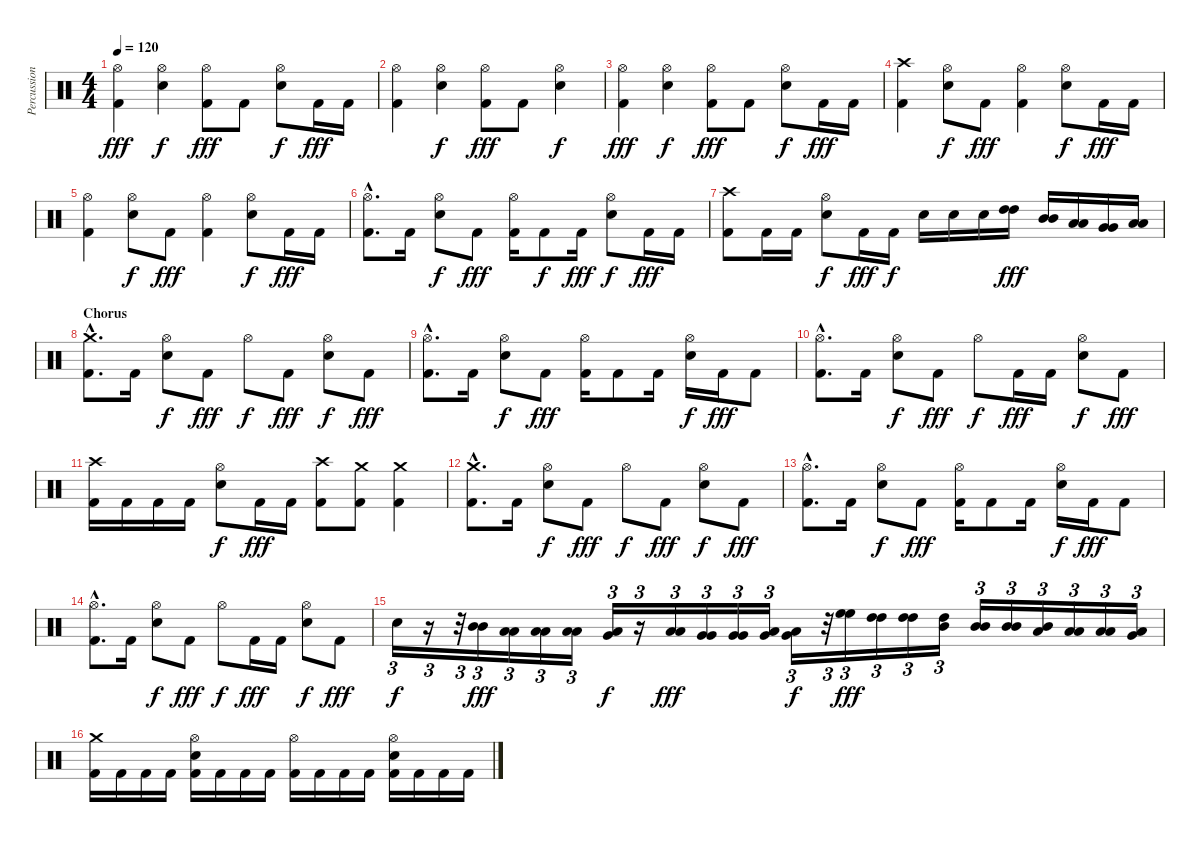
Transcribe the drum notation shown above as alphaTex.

\track ("Percussion" "Percussion") {instrument percussion}
\staff {score}
\articulation defaults
\ts (4 4)
\tempo 120
\clef neutral
\ks c
("Hi-Hat (open)" "Kick (hit) 2").4{dy fff} ("Hi-Hat (open)" "Snare (hit) 2").4{dy f} ("Hi-Hat (open)" "Kick (hit) 2").8{dy fff} "Kick (hit) 2".8 ("Hi-Hat (open)" "Snare (hit) 2").8{dy f} "Kick (hit) 2".16{dy fff} "Kick (hit) 2".16 |
("Hi-Hat (open)" "Kick (hit) 2").4 ("Hi-Hat (open)" "Snare (hit) 2").4{dy f} ("Hi-Hat (open)" "Kick (hit) 2").8{dy fff} "Kick (hit) 2".8 ("Hi-Hat (open)" "Snare (hit) 2").4{dy f} |
("Hi-Hat (open)" "Kick (hit) 2").4{dy fff} ("Hi-Hat (open)" "Snare (hit) 2").4{dy f} ("Hi-Hat (open)" "Kick (hit) 2").8{dy fff} "Kick (hit) 2".8 ("Hi-Hat (open)" "Snare (hit) 2").8{dy f} "Kick (hit) 2".16{dy fff} "Kick (hit) 2".16 |
("Crash high (hit)" "Kick (hit) 2").4 ("Hi-Hat (open)" "Snare (hit) 2").8{dy f} "Kick (hit) 2".8{dy fff} ("Hi-Hat (open)" "Kick (hit) 2").4 ("Hi-Hat (open)" "Snare (hit) 2").8{dy f} "Kick (hit) 2".16{dy fff} "Kick (hit) 2".16 |
("Hi-Hat (open)" "Kick (hit) 2").4 ("Hi-Hat (open)" "Snare (hit) 2").8{dy f} "Kick (hit) 2".8{dy fff} ("Hi-Hat (open)" "Kick (hit) 2").4 ("Hi-Hat (open)" "Snare (hit) 2").8{dy f} "Kick (hit) 2".16{dy fff} "Kick (hit) 2".16 |
("Hi-Hat (open)"{hac} "Kick (hit) 2"{hac}).8{d} "Kick (hit) 2".16 ("Hi-Hat (open)" "Snare (hit) 2").8{dy f} "Kick (hit) 2".8{dy fff} ("Hi-Hat (open)" "Kick (hit) 2").16 "Kick (hit) 2".8{dy f} "Kick (hit) 2".16{dy fff} ("Hi-Hat (open)" "Snare (hit) 2").8{dy f} "Kick (hit) 2".16{dy fff} "Kick (hit) 2".16 |
("Crash high (hit)" "Kick (hit) 2").8 "Kick (hit) 2".16 "Kick (hit) 2".16 ("Hi-Hat (open)" "Snare (hit) 2").8{dy f} "Kick (hit) 2".16{dy fff} "Kick (hit) 2".16{dy f} "Snare (hit) 2".16 "Snare (hit) 2".16 "Snare (hit) 2".16 ("High Tom (hit)" "High Tom (hit)").16{dy fff} ("Mid Tom (hit)" "Mid Tom (hit)").16 ("Low Tom (hit)" "Low Tom (hit)").16 ("Very Low Tom (hit)" "Very Low Tom (hit)").16 ("Low Floor Tom (hit)" "Low Floor Tom (hit)").16 |
\section ("" "Chorus")
("Crash medium (hit)"{hac} "Kick (hit) 2"{hac}).8{d} "Kick (hit) 2".16 ("Hi-Hat (open)" "Snare (hit) 2").8{dy f} "Kick (hit) 2".8{dy fff} "Hi-Hat (open)".8{dy f} "Kick (hit) 2".8{dy fff} ("Hi-Hat (open)" "Snare (hit) 2").8{dy f} "Kick (hit) 2".8{dy fff} |
("Hi-Hat (open)"{hac} "Kick (hit) 2"{hac}).8{d} "Kick (hit) 2".16 ("Hi-Hat (open)" "Snare (hit) 2").8{dy f} "Kick (hit) 2".8{dy fff} ("Hi-Hat (open)" "Kick (hit) 2").16 "Kick (hit) 2".8 "Kick (hit) 2".16 ("Hi-Hat (open)" "Snare (hit) 2").16{dy f} "Kick (hit) 2".16{dy fff} "Kick (hit) 2".8 |
("Hi-Hat (open)"{hac} "Kick (hit) 2"{hac}).8{d} "Kick (hit) 2".16 ("Hi-Hat (open)" "Snare (hit) 2").8{dy f} "Kick (hit) 2".8{dy fff} "Hi-Hat (open)".8{dy f} "Kick (hit) 2".16{dy fff} "Kick (hit) 2".16 ("Hi-Hat (open)" "Snare (hit) 2").8{dy f} "Kick (hit) 2".8{dy fff} |
("Crash high (hit)" "Kick (hit) 2").16 "Kick (hit) 2".16 "Kick (hit) 2".16 "Kick (hit) 2".16 ("Hi-Hat (open)" "Snare (hit) 2").8{dy f} "Kick (hit) 2".16{dy fff} "Kick (hit) 2".16 ("Crash high (hit)" "Kick (hit) 2").8 ("Crash medium (hit)" "Kick (hit) 2").8 ("Crash medium (hit)" "Kick (hit) 2").4 |
("Crash medium (hit)"{hac} "Kick (hit) 2"{hac}).8{d} "Kick (hit) 2".16 ("Hi-Hat (open)" "Snare (hit) 2").8{dy f} "Kick (hit) 2".8{dy fff} "Hi-Hat (open)".8{dy f} "Kick (hit) 2".8{dy fff} ("Hi-Hat (open)" "Snare (hit) 2").8{dy f} "Kick (hit) 2".8{dy fff} |
("Hi-Hat (open)"{hac} "Kick (hit) 2"{hac}).8{d} "Kick (hit) 2".16 ("Hi-Hat (open)" "Snare (hit) 2").8{dy f} "Kick (hit) 2".8{dy fff} ("Hi-Hat (open)" "Kick (hit) 2").16 "Kick (hit) 2".8 "Kick (hit) 2".16 ("Hi-Hat (open)" "Snare (hit) 2").16{dy f} "Kick (hit) 2".16{dy fff} "Kick (hit) 2".8 |
("Hi-Hat (open)"{hac} "Kick (hit) 2"{hac}).8{d} "Kick (hit) 2".16 ("Hi-Hat (open)" "Snare (hit) 2").8{dy f} "Kick (hit) 2".8{dy fff} "Hi-Hat (open)".8{dy f} "Kick (hit) 2".16{dy fff} "Kick (hit) 2".16 ("Hi-Hat (open)" "Snare (hit) 2").8{dy f} "Kick (hit) 2".8{dy fff} |
"Snare (hit) 2".16{tu (3 2) dy f} r.16{tu (3 2)} r.32{tu (3 2)} ("Mid Tom (hit)" "Mid Tom (hit)").16{tu (3 2) dy fff} ("Low Tom (hit)" "Low Tom (hit)").16{tu (3 2)} ("Low Tom (hit)" "Low Tom (hit)").16{tu (3 2)} ("Low Tom (hit)" "Low Tom (hit)").16{tu (3 2)} ("Low Tom (hit)" "Very Low Tom (hit)").16{tu (3 2) dy f} r.16{tu (3 2)} ("Low Tom (hit)" "Low Tom (hit)").16{tu (3 2) dy fff} ("Very Low Tom (hit)" "Very Low Tom (hit)").16{tu (3 2)} ("Very Low Tom (hit)" "Very Low Tom (hit)").16{tu (3 2)} ("Low Tom (hit)" "Very Low Tom (hit)").16{tu (3 2)} ("Very Low Tom (hit)" "Low Floor Tom (hit)").16{tu (3 2) dy f} r.32{tu (3 2)} ("High Floor Tom (hit)" "High Floor Tom (hit)").16{tu (3 2) dy fff} ("High Tom (hit)" "High Tom (hit)").16{tu (3 2)} ("High Tom (hit)" "High Tom (hit)").16{tu (3 2)} ("Mid Tom (hit)" "High Tom (hit)").16{tu (3 2)} ("Mid Tom (hit)" "Mid Tom (hit)").16{tu (3 2)} ("Mid Tom (hit)" "Mid Tom (hit)").16{tu (3 2)} ("Low Tom (hit)" "Mid Tom (hit)").16{tu (3 2)} ("Low Tom (hit)" "Low Tom (hit)").16{tu (3 2)} ("Low Tom (hit)" "Low Tom (hit)").16{tu (3 2)} ("Very Low Tom (hit)" "Low Tom (hit)").16{tu (3 2)} |
("Crash medium (hit)" "Kick (hit) 2").16 "Kick (hit) 2".16 "Kick (hit) 2".16 "Kick (hit) 2".16 ("Hi-Hat (open)" "Snare (hit) 2" "Kick (hit) 2").16 "Kick (hit) 2".16 "Kick (hit) 2".16 "Kick (hit) 2".16 ("Hi-Hat (open)" "Kick (hit) 2").16 "Kick (hit) 2".16 "Kick (hit) 2".16 "Kick (hit) 2".16 ("Hi-Hat (open)" "Snare (hit) 2" "Kick (hit) 2").16 "Kick (hit) 2".16 "Kick (hit) 2".16 "Kick (hit) 2".16
